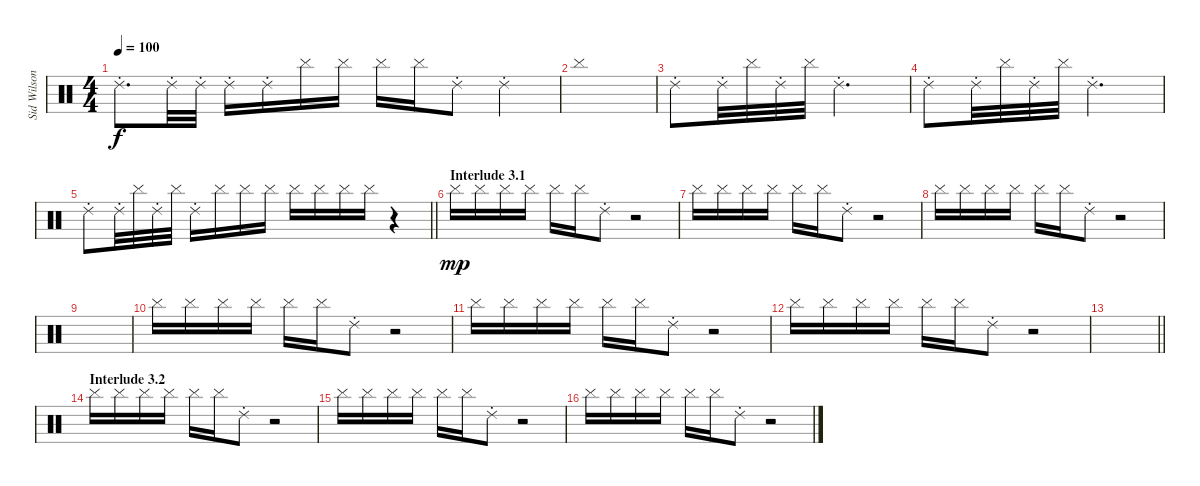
\track ("Sid Wilson" "Sid Wilson") {instrument percussion}
\staff {score}
\articulation defaults
\ts (4 4)
\tempo 100
\clef neutral
\ks c "Ride (choke) 2".8{d dy f} "Ride (choke) 2".32 "Ride (choke) 2".32 "Ride (choke) 2".16 "Ride (choke) 2".16 "Cymbal (hit)".16 "Cymbal (hit)".16 "Cymbal (hit)".16 "Cymbal (hit)".16 "Ride (choke) 2".8 "Ride (choke) 2".4
|
"Cymbal (hit)".1 |
"Ride (choke) 2".8 "Ride (choke) 2".32 "Cymbal (hit)".32 "Ride (choke) 2".32 "Cymbal (hit)".32 "Ride (choke) 2".2{d} |
"Ride (choke) 2".8 "Ride (choke) 2".32 "Cymbal (hit)".32 "Ride (choke) 2".32 "Cymbal (hit)".32 "Ride (choke) 2".2{d} |
\barLineRight lightlight "Ride (choke) 2".8 "Ride (choke) 2".32 "Cymbal (hit)".32 "Ride (choke) 2".32 "Cymbal (hit)".32 "Ride (choke) 2".16 "Cymbal (hit)".16 "Cymbal (hit)".16 "Cymbal (hit)".16 "Cymbal (hit)".16 "Cymbal (hit)".16 "Cymbal (hit)".16 "Cymbal (hit)".16
r.4 |
\section ("" "Interlude 3.1")
"Cymbal (hit)".16{dy mp} "Cymbal (hit)".16 "Cymbal (hit)".16 "Cymbal (hit)".16 "Cymbal (hit)".16 "Cymbal (hit)".16 "Ride (choke) 2".8 r.2 |
"Cymbal (hit)".16 "Cymbal (hit)".16 "Cymbal (hit)".16 "Cymbal (hit)".16 "Cymbal (hit)".16 "Cymbal (hit)".16 "Ride (choke) 2".8 r.2 |
"Cymbal (hit)".16 "Cymbal (hit)".16 "Cymbal (hit)".16 "Cymbal (hit)".16 "Cymbal (hit)".16 "Cymbal (hit)".16 "Ride (choke) 2".8 r.2 |
|
"Cymbal (hit)".16 "Cymbal (hit)".16 "Cymbal (hit)".16 "Cymbal (hit)".16 "Cymbal (hit)".16 "Cymbal (hit)".16 "Ride (choke) 2".8 r.2 |
"Cymbal (hit)".16 "Cymbal (hit)".16 "Cymbal (hit)".16 "Cymbal (hit)".16 "Cymbal (hit)".16 "Cymbal (hit)".16 "Ride (choke) 2".8 r.2 |
"Cymbal (hit)".16 "Cymbal (hit)".16 "Cymbal (hit)".16 "Cymbal (hit)".16 "Cymbal (hit)".16 "Cymbal (hit)".16 "Ride (choke) 2".8 r.2 |
\barLineRight lightlight
|
\section ("" "Interlude 3.2")
"Cymbal (hit)".16 "Cymbal (hit)".16 "Cymbal (hit)".16 "Cymbal (hit)".16 "Cymbal (hit)".16 "Cymbal (hit)".16 "Ride (choke) 2".8 r.2 |
"Cymbal (hit)".16 "Cymbal (hit)".16 "Cymbal (hit)".16 "Cymbal (hit)".16 "Cymbal (hit)".16 "Cymbal (hit)".16 "Ride (choke) 2".8 r.2 |
"Cymbal (hit)".16 "Cymbal (hit)".16 "Cymbal (hit)".16 "Cymbal (hit)".16 "Cymbal (hit)".16 "Cymbal (hit)".16 "Ride (choke) 2".8 r.2
